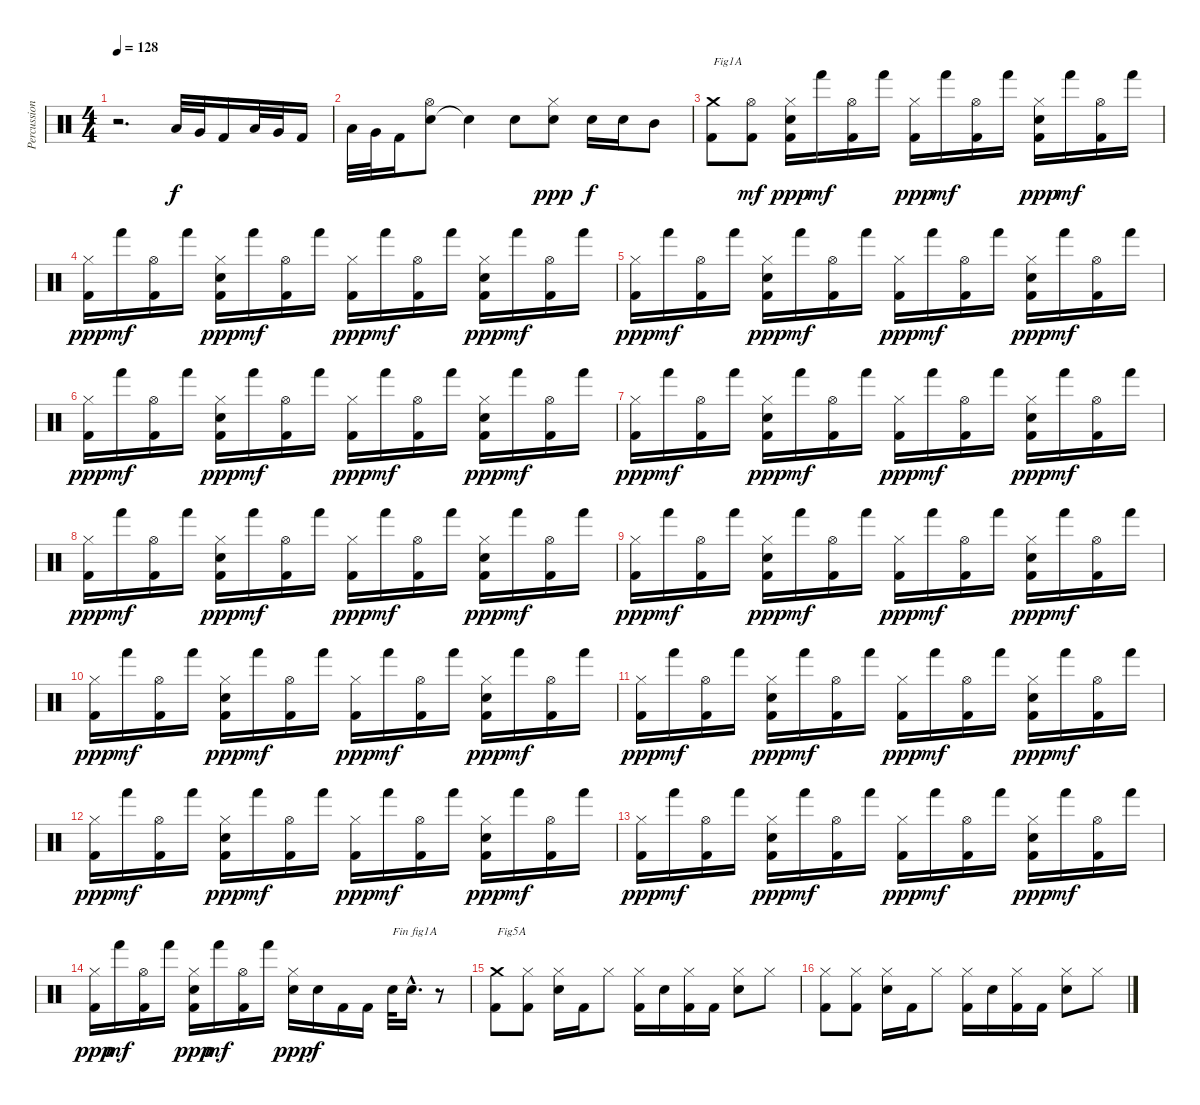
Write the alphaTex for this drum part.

\track ("Percussions" "Percussion") {instrument percussion}
\staff {score}
\articulation defaults
\ts (4 4)
\tempo 128
\clef neutral
\ks c
r.2{d dy f} "Low Tom (hit)".32 "Very Low Tom (hit)".32 "Kick (hit) 2".16 "Low Tom (hit)".32 "Very Low Tom (hit)".32 "Kick (hit) 2".16 |
"Low Tom (hit)".32 "Very Low Tom (hit)".32 "Kick (hit) 2".16 ("Electric Snare (hit)" "Hi-Hat (open)").8 "Snare (hit)"{t}.4 "Electric Snare (hit)".8 ("Electric Snare (hit)" "Hi-Hat (closed)").8{dy ppp} "Electric Snare (hit)".16{dy f} "Electric Snare (hit)".16 "Mid Tom (hit)".8 |
("Kick (hit) 2" "Crash medium (hit)").8{txt "Fig1A"} ("Kick (hit) 2" "Hi-Hat (open)").8{dy mf} ("Kick (hit) 2" "Electric Snare (hit)" "Hi-Hat (closed)").16{dy ppp} "Hand (hit)".16{dy mf} ("Kick (hit) 2" "Hi-Hat (open)").16 "Hand (hit)".16 ("Kick (hit) 2" "Hi-Hat (closed)").16{dy ppp} "Hand (hit)".16{dy mf} ("Kick (hit) 2" "Hi-Hat (open)").16 "Hand (hit)".16 ("Kick (hit) 2" "Electric Snare (hit)" "Hi-Hat (closed)").16{dy ppp} "Hand (hit)".16{dy mf} ("Kick (hit) 2" "Hi-Hat (open)").16 "Hand (hit)".16 |
("Kick (hit) 2" "Hi-Hat (closed)").16{dy ppp} "Hand (hit)".16{dy mf} ("Kick (hit) 2" "Hi-Hat (open)").16 "Hand (hit)".16 ("Kick (hit) 2" "Electric Snare (hit)" "Hi-Hat (closed)").16{dy ppp} "Hand (hit)".16{dy mf} ("Kick (hit) 2" "Hi-Hat (open)").16 "Hand (hit)".16 ("Kick (hit) 2" "Hi-Hat (closed)").16{dy ppp} "Hand (hit)".16{dy mf} ("Kick (hit) 2" "Hi-Hat (open)").16 "Hand (hit)".16 ("Kick (hit) 2" "Electric Snare (hit)" "Hi-Hat (closed)").16{dy ppp} "Hand (hit)".16{dy mf} ("Kick (hit) 2" "Hi-Hat (open)").16 "Hand (hit)".16 |
("Kick (hit) 2" "Hi-Hat (closed)").16{dy ppp} "Hand (hit)".16{dy mf} ("Kick (hit) 2" "Hi-Hat (open)").16 "Hand (hit)".16 ("Kick (hit) 2" "Electric Snare (hit)" "Hi-Hat (closed)").16{dy ppp} "Hand (hit)".16{dy mf} ("Kick (hit) 2" "Hi-Hat (open)").16 "Hand (hit)".16 ("Kick (hit) 2" "Hi-Hat (closed)").16{dy ppp} "Hand (hit)".16{dy mf} ("Kick (hit) 2" "Hi-Hat (open)").16 "Hand (hit)".16 ("Kick (hit) 2" "Electric Snare (hit)" "Hi-Hat (closed)").16{dy ppp} "Hand (hit)".16{dy mf} ("Kick (hit) 2" "Hi-Hat (open)").16 "Hand (hit)".16 |
("Kick (hit) 2" "Hi-Hat (closed)").16{dy ppp} "Hand (hit)".16{dy mf} ("Kick (hit) 2" "Hi-Hat (open)").16 "Hand (hit)".16 ("Kick (hit) 2" "Electric Snare (hit)" "Hi-Hat (closed)").16{dy ppp} "Hand (hit)".16{dy mf} ("Kick (hit) 2" "Hi-Hat (open)").16 "Hand (hit)".16 ("Kick (hit) 2" "Hi-Hat (closed)").16{dy ppp} "Hand (hit)".16{dy mf} ("Kick (hit) 2" "Hi-Hat (open)").16 "Hand (hit)".16 ("Kick (hit) 2" "Electric Snare (hit)" "Hi-Hat (closed)").16{dy ppp} "Hand (hit)".16{dy mf} ("Kick (hit) 2" "Hi-Hat (open)").16 "Hand (hit)".16 |
("Kick (hit) 2" "Hi-Hat (closed)").16{dy ppp} "Hand (hit)".16{dy mf} ("Kick (hit) 2" "Hi-Hat (open)").16 "Hand (hit)".16 ("Kick (hit) 2" "Electric Snare (hit)" "Hi-Hat (closed)").16{dy ppp} "Hand (hit)".16{dy mf} ("Kick (hit) 2" "Hi-Hat (open)").16 "Hand (hit)".16 ("Kick (hit) 2" "Hi-Hat (closed)").16{dy ppp} "Hand (hit)".16{dy mf} ("Kick (hit) 2" "Hi-Hat (open)").16 "Hand (hit)".16 ("Kick (hit) 2" "Electric Snare (hit)" "Hi-Hat (closed)").16{dy ppp} "Hand (hit)".16{dy mf} ("Kick (hit) 2" "Hi-Hat (open)").16 "Hand (hit)".16 |
("Kick (hit) 2" "Hi-Hat (closed)").16{dy ppp} "Hand (hit)".16{dy mf} ("Kick (hit) 2" "Hi-Hat (open)").16 "Hand (hit)".16 ("Kick (hit) 2" "Electric Snare (hit)" "Hi-Hat (closed)").16{dy ppp} "Hand (hit)".16{dy mf} ("Kick (hit) 2" "Hi-Hat (open)").16 "Hand (hit)".16 ("Kick (hit) 2" "Hi-Hat (closed)").16{dy ppp} "Hand (hit)".16{dy mf} ("Kick (hit) 2" "Hi-Hat (open)").16 "Hand (hit)".16 ("Kick (hit) 2" "Electric Snare (hit)" "Hi-Hat (closed)").16{dy ppp} "Hand (hit)".16{dy mf} ("Kick (hit) 2" "Hi-Hat (open)").16 "Hand (hit)".16 |
("Kick (hit) 2" "Hi-Hat (closed)").16{dy ppp} "Hand (hit)".16{dy mf} ("Kick (hit) 2" "Hi-Hat (open)").16 "Hand (hit)".16 ("Kick (hit) 2" "Electric Snare (hit)" "Hi-Hat (closed)").16{dy ppp} "Hand (hit)".16{dy mf} ("Kick (hit) 2" "Hi-Hat (open)").16 "Hand (hit)".16 ("Kick (hit) 2" "Hi-Hat (closed)").16{dy ppp} "Hand (hit)".16{dy mf} ("Kick (hit) 2" "Hi-Hat (open)").16 "Hand (hit)".16 ("Kick (hit) 2" "Electric Snare (hit)" "Hi-Hat (closed)").16{dy ppp} "Hand (hit)".16{dy mf} ("Kick (hit) 2" "Hi-Hat (open)").16 "Hand (hit)".16 |
("Kick (hit) 2" "Hi-Hat (closed)").16{dy ppp} "Hand (hit)".16{dy mf} ("Kick (hit) 2" "Hi-Hat (open)").16 "Hand (hit)".16 ("Kick (hit) 2" "Electric Snare (hit)" "Hi-Hat (closed)").16{dy ppp} "Hand (hit)".16{dy mf} ("Kick (hit) 2" "Hi-Hat (open)").16 "Hand (hit)".16 ("Kick (hit) 2" "Hi-Hat (closed)").16{dy ppp} "Hand (hit)".16{dy mf} ("Kick (hit) 2" "Hi-Hat (open)").16 "Hand (hit)".16 ("Kick (hit) 2" "Electric Snare (hit)" "Hi-Hat (closed)").16{dy ppp} "Hand (hit)".16{dy mf} ("Kick (hit) 2" "Hi-Hat (open)").16 "Hand (hit)".16 |
("Kick (hit) 2" "Hi-Hat (closed)").16{dy ppp} "Hand (hit)".16{dy mf} ("Kick (hit) 2" "Hi-Hat (open)").16 "Hand (hit)".16 ("Kick (hit) 2" "Electric Snare (hit)" "Hi-Hat (closed)").16{dy ppp} "Hand (hit)".16{dy mf} ("Kick (hit) 2" "Hi-Hat (open)").16 "Hand (hit)".16 ("Kick (hit) 2" "Hi-Hat (closed)").16{dy ppp} "Hand (hit)".16{dy mf} ("Kick (hit) 2" "Hi-Hat (open)").16 "Hand (hit)".16 ("Kick (hit) 2" "Electric Snare (hit)" "Hi-Hat (closed)").16{dy ppp} "Hand (hit)".16{dy mf} ("Kick (hit) 2" "Hi-Hat (open)").16 "Hand (hit)".16 |
("Kick (hit) 2" "Hi-Hat (closed)").16{dy ppp} "Hand (hit)".16{dy mf} ("Kick (hit) 2" "Hi-Hat (open)").16 "Hand (hit)".16 ("Kick (hit) 2" "Electric Snare (hit)" "Hi-Hat (closed)").16{dy ppp} "Hand (hit)".16{dy mf} ("Kick (hit) 2" "Hi-Hat (open)").16 "Hand (hit)".16 ("Kick (hit) 2" "Hi-Hat (closed)").16{dy ppp} "Hand (hit)".16{dy mf} ("Kick (hit) 2" "Hi-Hat (open)").16 "Hand (hit)".16 ("Kick (hit) 2" "Electric Snare (hit)" "Hi-Hat (closed)").16{dy ppp} "Hand (hit)".16{dy mf} ("Kick (hit) 2" "Hi-Hat (open)").16 "Hand (hit)".16 |
("Kick (hit) 2" "Hi-Hat (closed)").16{dy ppp} "Hand (hit)".16{dy mf} ("Kick (hit) 2" "Hi-Hat (open)").16 "Hand (hit)".16 ("Kick (hit) 2" "Electric Snare (hit)" "Hi-Hat (closed)").16{dy ppp} "Hand (hit)".16{dy mf} ("Kick (hit) 2" "Hi-Hat (open)").16 "Hand (hit)".16 ("Kick (hit) 2" "Hi-Hat (closed)").16{dy ppp} "Hand (hit)".16{dy mf} ("Kick (hit) 2" "Hi-Hat (open)").16 "Hand (hit)".16 ("Kick (hit) 2" "Electric Snare (hit)" "Hi-Hat (closed)").16{dy ppp} "Hand (hit)".16{dy mf} ("Kick (hit) 2" "Hi-Hat (open)").16 "Hand (hit)".16 |
("Kick (hit) 2" "Hi-Hat (closed)").16{dy ppp} "Hand (hit)".16{dy mf} ("Kick (hit) 2" "Hi-Hat (open)").16 "Hand (hit)".16 ("Kick (hit) 2" "Electric Snare (hit)" "Hi-Hat (closed)").16{dy ppp} "Hand (hit)".16{dy mf} ("Kick (hit) 2" "Hi-Hat (open)").16 "Hand (hit)".16 ("Electric Snare (hit)" "Hi-Hat (closed)").16{dy ppp} "Electric Snare (hit)".16{dy f} "Kick (hit) 2".16 "Kick (hit) 2".16 "Electric Snare (hit)".32{txt "Fin fig1A"} "Electric Snare (hit)"{hac}.16{d} r.8 |
("Kick (hit) 2" "Crash medium (hit)").8{txt "Fig5A"} ("Kick (hit) 2" "Hi-Hat (closed)").8 ("Electric Snare (hit)" "Hi-Hat (closed)").16 "Kick (hit) 2".16 "Hi-Hat (closed)".8 ("Kick (hit) 2" "Hi-Hat (closed)").16 "Electric Snare (hit)".16 ("Kick (hit) 2" "Hi-Hat (closed)").16 "Kick (hit) 2".16 ("Electric Snare (hit)" "Hi-Hat (closed)").8 "Hi-Hat (closed)".8 |
("Kick (hit) 2" "Hi-Hat (closed)").8 ("Kick (hit) 2" "Hi-Hat (closed)").8 ("Electric Snare (hit)" "Hi-Hat (closed)").16 "Kick (hit) 2".16 "Hi-Hat (closed)".8 ("Kick (hit) 2" "Hi-Hat (closed)").16 "Electric Snare (hit)".16 ("Kick (hit) 2" "Hi-Hat (closed)").16 "Kick (hit) 2".16 ("Electric Snare (hit)" "Hi-Hat (closed)").8 "Hi-Hat (closed)".8
